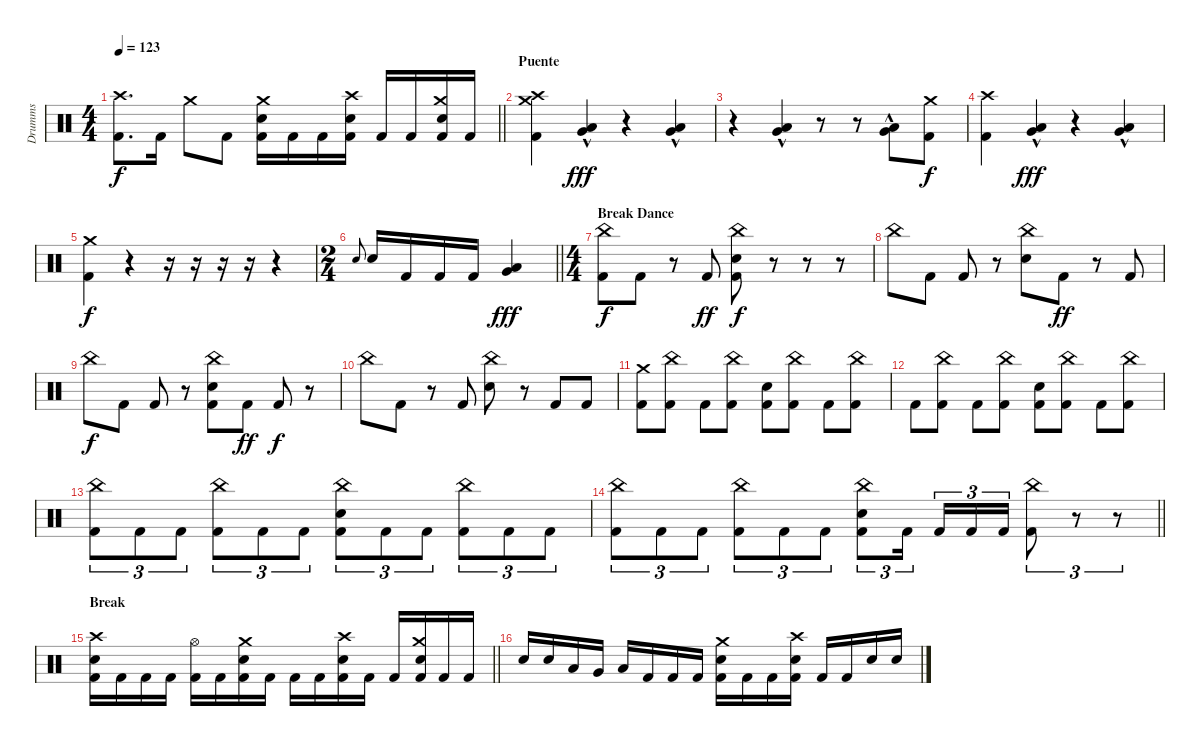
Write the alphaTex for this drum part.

\track ("Drumms" "Drumms") {instrument percussion}
\staff {score}
\articulation defaults
\ts (4 4)
\tempo 123
\clef neutral
\barLineRight lightlight
\ks aminor
("Crash high (hit)" "Kick (hit) 2").8{d dy f} "Kick (hit) 2".16 "Crash medium (hit)".8 "Kick (hit) 2".8 ("Crash medium (hit)" "Electric Snare (hit)" "Kick (hit) 2").16 "Kick (hit) 2".16 "Kick (hit) 2".16 ("Crash high (hit)" "Electric Snare (hit)" "Kick (hit) 2").16 "Kick (hit) 2".16 "Kick (hit) 2".16 ("Crash medium (hit)" "Electric Snare (hit)" "Kick (hit) 2").16 "Kick (hit) 2".16 |
\section ("" "Puente")
("Crash high (hit)" "Crash medium (hit)" "Kick (hit) 2").4 ("Low Floor Tom (hit)"{hac} "Very Low Tom (hit)"{hac}).4{dy fff} r.4 ("Low Floor Tom (hit)"{hac} "Very Low Tom (hit)"{hac}).4 |
r.4 ("Low Floor Tom (hit)"{hac} "Very Low Tom (hit)"{hac}).4 r.8 r.8 ("Low Floor Tom (hit)"{hac} "Very Low Tom (hit)"{hac}).8 ("Crash medium (hit)" "Kick (hit) 2").8{dy f} |
("Crash high (hit)" "Kick (hit) 2").4 ("Low Floor Tom (hit)"{hac} "Very Low Tom (hit)"{hac}).4{dy fff} r.4 ("Low Floor Tom (hit)"{hac} "Very Low Tom (hit)"{hac}).4 |
("Crash medium (hit)" "Kick (hit) 2").4{dy f} r.4 r.16 r.16 r.16 r.16 r.4 |
\ts (2 4)
\barLineRight lightlight "Electric Snare (hit)".8{gr onbeat} "Electric Snare (hit)".16 "Kick (hit) 2".16 "Kick (hit) 2".16 "Kick (hit) 2".16
("Low Floor Tom (hit)" "Very Low Tom (hit)").4{dy fff} |
\ts (4 4)
\section ("" "Break Dance")
("China (hit)" "Kick (hit) 2").8{dy f} "Kick (hit) 2".8 r.8 "Kick (hit) 2".8{dy ff} ("China (hit)" "Electric Snare (hit)" "Kick (hit) 2").8{dy f} r.8 r.8 r.8 |
"China (hit)".8 "Kick (hit) 2".8 "Kick (hit) 2".8 r.8 ("China (hit)" "Electric Snare (hit)").8 "Kick (hit) 2".8{dy ff} r.8 "Kick (hit) 2".8 |
"China (hit)".8{dy f} "Kick (hit) 2".8 "Kick (hit) 2".8 r.8 ("China (hit)" "Electric Snare (hit)" "Kick (hit) 2").8 "Kick (hit) 2".8{dy ff} "Kick (hit) 2".8{dy f} r.8 |
"China (hit)".8 "Kick (hit) 2".8 r.8 "Kick (hit) 2".8 ("China (hit)" "Electric Snare (hit)").8 r.8 "Kick (hit) 2".8 "Kick (hit) 2".8 |
("Crash medium (hit)" "Kick (hit) 2").8 ("China (hit)" "Kick (hit) 2").8 "Kick (hit) 2".8 ("China (hit)" "Kick (hit) 2").8 ("Electric Snare (hit)" "Kick (hit) 2").8 ("China (hit)" "Kick (hit) 2").8 "Kick (hit) 2".8 ("China (hit)" "Kick (hit) 2").8 |
"Kick (hit) 2".8 ("China (hit)" "Kick (hit) 2").8 "Kick (hit) 2".8 ("China (hit)" "Kick (hit) 2").8 ("Electric Snare (hit)" "Kick (hit) 2").8 ("China (hit)" "Kick (hit) 2").8 "Kick (hit) 2".8 ("China (hit)" "Kick (hit) 2").8 |
("China (hit)" "Kick (hit) 2").8{tu (3 2)} "Kick (hit) 2".8{tu (3 2)} "Kick (hit) 2".8{tu (3 2)} ("China (hit)" "Kick (hit) 2").8{tu (3 2)} "Kick (hit) 2".8{tu (3 2)} "Kick (hit) 2".8{tu (3 2)} ("China (hit)" "Electric Snare (hit)" "Kick (hit) 2").8{tu (3 2)} "Kick (hit) 2".8{tu (3 2)} "Kick (hit) 2".8{tu (3 2)} ("China (hit)" "Kick (hit) 2").8{tu (3 2)} "Kick (hit) 2".8{tu (3 2)} "Kick (hit) 2".8{tu (3 2)} |
\barLineRight lightlight
("China (hit)" "Kick (hit) 2").8{tu (3 2)} "Kick (hit) 2".8{tu (3 2)} "Kick (hit) 2".8{tu (3 2)} ("China (hit)" "Kick (hit) 2").8{tu (3 2)} "Kick (hit) 2".8{tu (3 2)} "Kick (hit) 2".8{tu (3 2)} ("China (hit)" "Electric Snare (hit)" "Kick (hit) 2").8{tu (3 2)} "Kick (hit) 2".16{tu (3 2) beam splitsecondary} "Kick (hit) 2".16{tu (3 2)} "Kick (hit) 2".16{tu (3 2)} "Kick (hit) 2".16{tu (3 2)} ("China (hit)" "Kick (hit) 2").8{tu (3 2)} r.8{tu (3 2)} r.8{tu (3 2)} |
\section ("" "Break")
\barLineRight lightlight
("Crash high (hit)" "Electric Snare (hit)" "Kick (hit) 2").16 "Kick (hit) 2".16 "Kick (hit) 2".16 "Kick (hit) 2".16 ("Hi-Hat (open)" "Kick (hit) 2").16 "Kick (hit) 2".16 ("Crash medium (hit)" "Electric Snare (hit)" "Kick (hit) 2").16 "Kick (hit) 2".16 "Kick (hit) 2".16 "Kick (hit) 2".16 ("Crash high (hit)" "Electric Snare (hit)" "Kick (hit) 2").16 "Kick (hit) 2".16 "Kick (hit) 2".16 ("Crash medium (hit)" "Electric Snare (hit)" "Kick (hit) 2").16 "Kick (hit) 2".16 "Kick (hit) 2".16 |
"Electric Snare (hit)".16 "Electric Snare (hit)".16 "Low Tom (hit)".16 "Very Low Tom (hit)".16 "Low Floor Tom (hit)".16 "Kick (hit) 2".16 "Kick (hit) 2".16 "Kick (hit) 2".16 ("Crash medium (hit)" "Electric Snare (hit)" "Kick (hit) 2").16 "Kick (hit) 2".16 "Kick (hit) 2".16 ("Crash high (hit)" "Electric Snare (hit)" "Kick (hit) 2").16 "Kick (hit) 2".16 "Kick (hit) 2".16 "Electric Snare (hit)".16 "Electric Snare (hit)".16
